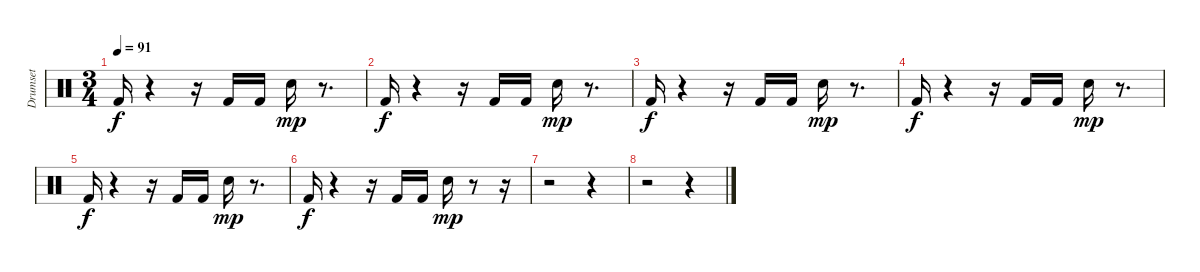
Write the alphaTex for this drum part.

\track ("Drumset" "Drumset") {instrument percussion}
\staff {score}
\articulation defaults
\ts (3 4)
\tempo 91
\clef neutral
\ks c "Kick (hit) 2".16{dy f}
r.4 r.16 "Kick (hit) 2".16 "Kick (hit) 2".16 "Snare (hit) 2".16{dy mp} r.8{d} |
"Kick (hit) 2".16{dy f} r.4 r.16 "Kick (hit) 2".16 "Kick (hit) 2".16 "Snare (hit) 2".16{dy mp} r.8{d} |
"Kick (hit) 2".16{dy f} r.4 r.16 "Kick (hit) 2".16 "Kick (hit) 2".16 "Snare (hit) 2".16{dy mp} r.8{d} |
"Kick (hit) 2".16{dy f} r.4 r.16 "Kick (hit) 2".16 "Kick (hit) 2".16 "Snare (hit) 2".16{dy mp} r.8{d} |
"Kick (hit) 2".16{dy f} r.4 r.16 "Kick (hit) 2".16 "Kick (hit) 2".16 "Snare (hit) 2".16{dy mp} r.8{d} |
"Kick (hit) 2".16{dy f} r.4 r.16 "Kick (hit) 2".16 "Kick (hit) 2".16 "Snare (hit) 2".16{dy mp} r.8 r.16 |
r.2 r.4 |
r.2 r.4
